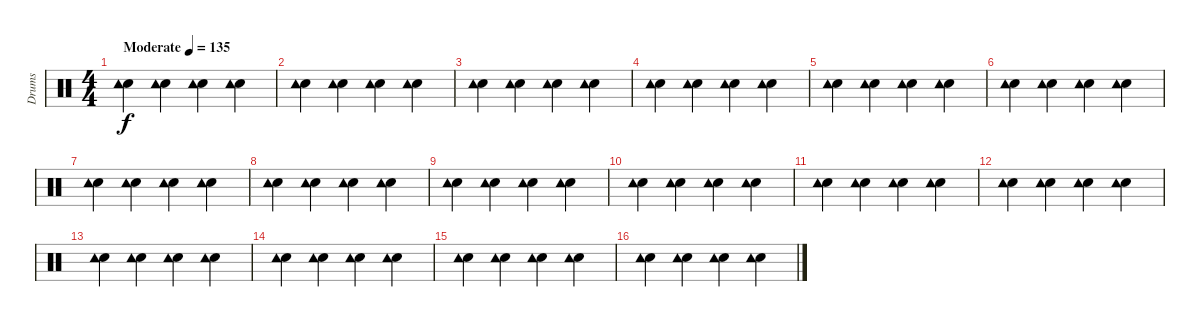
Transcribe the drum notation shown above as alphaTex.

\track ("Drums" "Drums") {instrument percussion}
\staff {score}
\articulation defaults
\ts (4 4)
\tempo (135 "Moderate")
\clef neutral
\ks c
("Snare (hit) 2" "Tambourine (hit)").4{dy f} ("Snare (hit) 2" "Tambourine (hit)").4 ("Snare (hit) 2" "Tambourine (hit)").4 ("Snare (hit) 2" "Tambourine (hit)").4 |
("Snare (hit) 2" "Tambourine (hit)").4 ("Snare (hit) 2" "Tambourine (hit)").4 ("Snare (hit) 2" "Tambourine (hit)").4 ("Snare (hit) 2" "Tambourine (hit)").4 |
("Snare (hit) 2" "Tambourine (hit)").4 ("Snare (hit) 2" "Tambourine (hit)").4 ("Snare (hit) 2" "Tambourine (hit)").4 ("Snare (hit) 2" "Tambourine (hit)").4 |
("Snare (hit) 2" "Tambourine (hit)").4 ("Snare (hit) 2" "Tambourine (hit)").4 ("Snare (hit) 2" "Tambourine (hit)").4 ("Snare (hit) 2" "Tambourine (hit)").4 |
("Snare (hit) 2" "Tambourine (hit)").4 ("Snare (hit) 2" "Tambourine (hit)").4 ("Snare (hit) 2" "Tambourine (hit)").4 ("Snare (hit) 2" "Tambourine (hit)").4 |
("Snare (hit) 2" "Tambourine (hit)").4 ("Snare (hit) 2" "Tambourine (hit)").4 ("Snare (hit) 2" "Tambourine (hit)").4 ("Snare (hit) 2" "Tambourine (hit)").4 |
("Snare (hit) 2" "Tambourine (hit)").4 ("Snare (hit) 2" "Tambourine (hit)").4 ("Snare (hit) 2" "Tambourine (hit)").4 ("Snare (hit) 2" "Tambourine (hit)").4 |
("Snare (hit) 2" "Tambourine (hit)").4 ("Snare (hit) 2" "Tambourine (hit)").4 ("Snare (hit) 2" "Tambourine (hit)").4 ("Snare (hit) 2" "Tambourine (hit)").4 |
("Snare (hit) 2" "Tambourine (hit)").4 ("Snare (hit) 2" "Tambourine (hit)").4 ("Snare (hit) 2" "Tambourine (hit)").4 ("Snare (hit) 2" "Tambourine (hit)").4 |
("Snare (hit) 2" "Tambourine (hit)").4 ("Snare (hit) 2" "Tambourine (hit)").4 ("Snare (hit) 2" "Tambourine (hit)").4 ("Snare (hit) 2" "Tambourine (hit)").4 |
("Snare (hit) 2" "Tambourine (hit)").4 ("Snare (hit) 2" "Tambourine (hit)").4 ("Snare (hit) 2" "Tambourine (hit)").4 ("Snare (hit) 2" "Tambourine (hit)").4 |
("Snare (hit) 2" "Tambourine (hit)").4 ("Snare (hit) 2" "Tambourine (hit)").4 ("Snare (hit) 2" "Tambourine (hit)").4 ("Snare (hit) 2" "Tambourine (hit)").4 |
("Snare (hit) 2" "Tambourine (hit)").4 ("Snare (hit) 2" "Tambourine (hit)").4 ("Snare (hit) 2" "Tambourine (hit)").4 ("Snare (hit) 2" "Tambourine (hit)").4 |
("Snare (hit) 2" "Tambourine (hit)").4 ("Snare (hit) 2" "Tambourine (hit)").4 ("Snare (hit) 2" "Tambourine (hit)").4 ("Snare (hit) 2" "Tambourine (hit)").4 |
("Snare (hit) 2" "Tambourine (hit)").4 ("Snare (hit) 2" "Tambourine (hit)").4 ("Snare (hit) 2" "Tambourine (hit)").4 ("Snare (hit) 2" "Tambourine (hit)").4 |
("Snare (hit) 2" "Tambourine (hit)").4 ("Snare (hit) 2" "Tambourine (hit)").4 ("Snare (hit) 2" "Tambourine (hit)").4 ("Snare (hit) 2" "Tambourine (hit)").4
